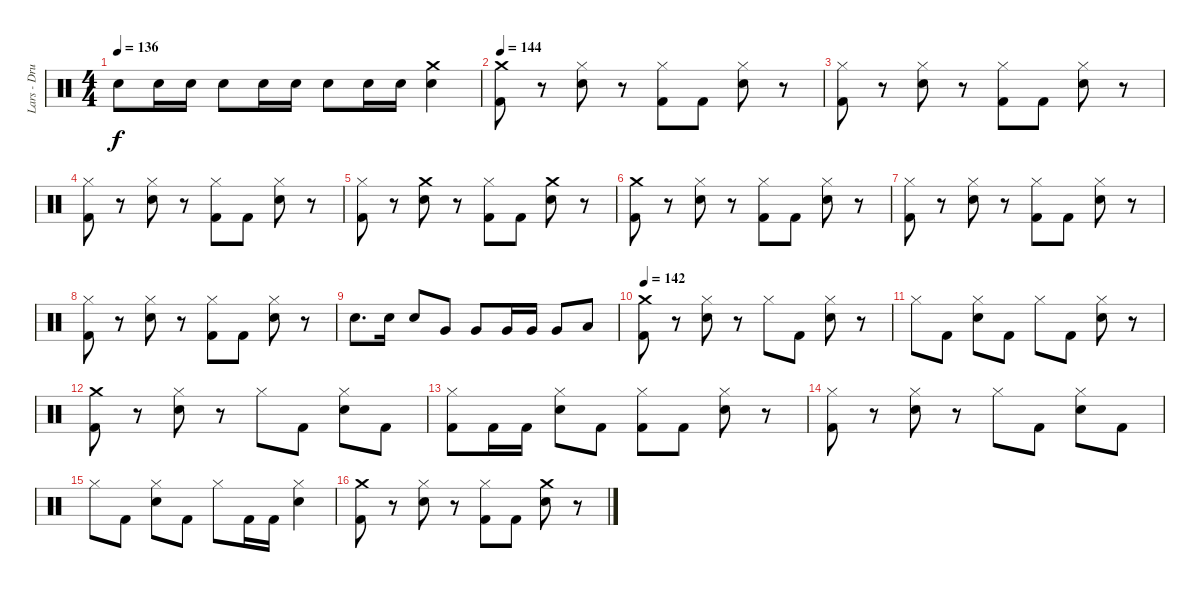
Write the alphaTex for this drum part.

\track ("Lars - Drums" "Lars - Dru") {instrument percussion}
\staff {score}
\articulation defaults
\ts (4 4)
\tempo 136
\clef neutral
\ks c "Snare (hit) 2".8{dy f} "Snare (hit) 2".16 "Snare (hit) 2".16 "Snare (hit) 2".8 "Snare (hit) 2".16 "Snare (hit) 2".16 "Snare (hit) 2".8 "Snare (hit) 2".16 "Snare (hit) 2".16
("Crash medium (hit)" "Snare (hit) 2").4 |
\tempo 144
("Crash medium (hit)" "Kick (hit) 2").8 r.8 ("Hi-Hat (closed)" "Snare (hit) 2").8 r.8 ("Hi-Hat (closed)" "Kick (hit) 2").8 "Kick (hit) 2".8 ("Hi-Hat (closed)" "Snare (hit) 2").8 r.8 |
("Hi-Hat (closed)" "Kick (hit) 2").8 r.8 ("Hi-Hat (closed)" "Snare (hit) 2").8 r.8 ("Hi-Hat (closed)" "Kick (hit) 2").8 "Kick (hit) 2".8 ("Hi-Hat (closed)" "Snare (hit) 2").8 r.8 |
("Hi-Hat (closed)" "Kick (hit) 2").8 r.8 ("Hi-Hat (closed)" "Snare (hit) 2").8 r.8 ("Hi-Hat (closed)" "Kick (hit) 2").8 "Kick (hit) 2".8 ("Hi-Hat (closed)" "Snare (hit) 2").8 r.8 |
("Hi-Hat (closed)" "Kick (hit) 2").8 r.8 ("Crash medium (hit)" "Snare (hit) 2").8 r.8 ("Hi-Hat (closed)" "Kick (hit) 2").8 "Kick (hit) 2".8 ("Crash medium (hit)" "Snare (hit) 2").8 r.8 |
("Crash medium (hit)" "Kick (hit) 2").8 r.8 ("Hi-Hat (closed)" "Snare (hit) 2").8 r.8 ("Hi-Hat (closed)" "Kick (hit) 2").8 "Kick (hit) 2".8 ("Hi-Hat (closed)" "Snare (hit) 2").8 r.8 |
("Hi-Hat (closed)" "Kick (hit) 2").8 r.8 ("Hi-Hat (closed)" "Snare (hit) 2").8 r.8 ("Hi-Hat (closed)" "Kick (hit) 2").8 "Kick (hit) 2".8 ("Hi-Hat (closed)" "Snare (hit) 2").8 r.8 |
("Hi-Hat (closed)" "Kick (hit) 2").8 r.8 ("Hi-Hat (closed)" "Snare (hit) 2").8 r.8 ("Hi-Hat (closed)" "Kick (hit) 2").8 "Kick (hit) 2".8 ("Hi-Hat (closed)" "Snare (hit) 2").8 r.8 |
"Snare (hit) 2".8{d} "Snare (hit) 2".16 "Snare (hit) 2".8 "Very Low Tom (hit)".8 "Very Low Tom (hit)".8 "Very Low Tom (hit)".16 "Very Low Tom (hit)".16 "Very Low Tom (hit)".8 "Low Floor Tom (hit)".8 |
\tempo 142
("Crash medium (hit)" "Kick (hit) 2").8 r.8 ("Hi-Hat (closed)" "Snare (hit) 2").8 r.8 "Hi-Hat (closed)".8 "Kick (hit) 2".8 ("Hi-Hat (closed)" "Snare (hit) 2").8 r.8 |
"Hi-Hat (closed)".8 "Kick (hit) 2".8 ("Hi-Hat (closed)" "Snare (hit) 2").8 "Kick (hit) 2".8 "Hi-Hat (closed)".8 "Kick (hit) 2".8 ("Hi-Hat (closed)" "Snare (hit) 2").8 r.8 |
("Crash medium (hit)" "Kick (hit) 2").8 r.8 ("Hi-Hat (closed)" "Snare (hit) 2").8 r.8 "Hi-Hat (closed)".8 "Kick (hit) 2".8 ("Hi-Hat (closed)" "Snare (hit) 2").8 "Kick (hit) 2".8 |
("Hi-Hat (closed)" "Kick (hit) 2").8 "Kick (hit) 2".16 "Kick (hit) 2".16 ("Hi-Hat (closed)" "Snare (hit) 2").8 "Kick (hit) 2".8 ("Hi-Hat (closed)" "Kick (hit) 2").8 "Kick (hit) 2".8 ("Hi-Hat (closed)" "Snare (hit) 2").8 r.8 |
("Hi-Hat (closed)" "Kick (hit) 2").8 r.8 ("Hi-Hat (closed)" "Snare (hit) 2").8 r.8 "Hi-Hat (closed)".8 "Kick (hit) 2".8 ("Hi-Hat (closed)" "Snare (hit) 2").8 "Kick (hit) 2".8 |
"Hi-Hat (closed)".8 "Kick (hit) 2".8 ("Hi-Hat (closed)" "Snare (hit) 2").8 "Kick (hit) 2".8 "Hi-Hat (closed)".8 "Kick (hit) 2".16 "Kick (hit) 2".16 ("Hi-Hat (closed)" "Snare (hit) 2").4 |
("Crash medium (hit)" "Kick (hit) 2").8 r.8 ("Snare (hit) 2" "Hi-Hat (closed)").8 r.8 ("Hi-Hat (closed)" "Kick (hit) 2").8 "Kick (hit) 2".8 ("Crash medium (hit)" "Snare (hit) 2").8 r.8
